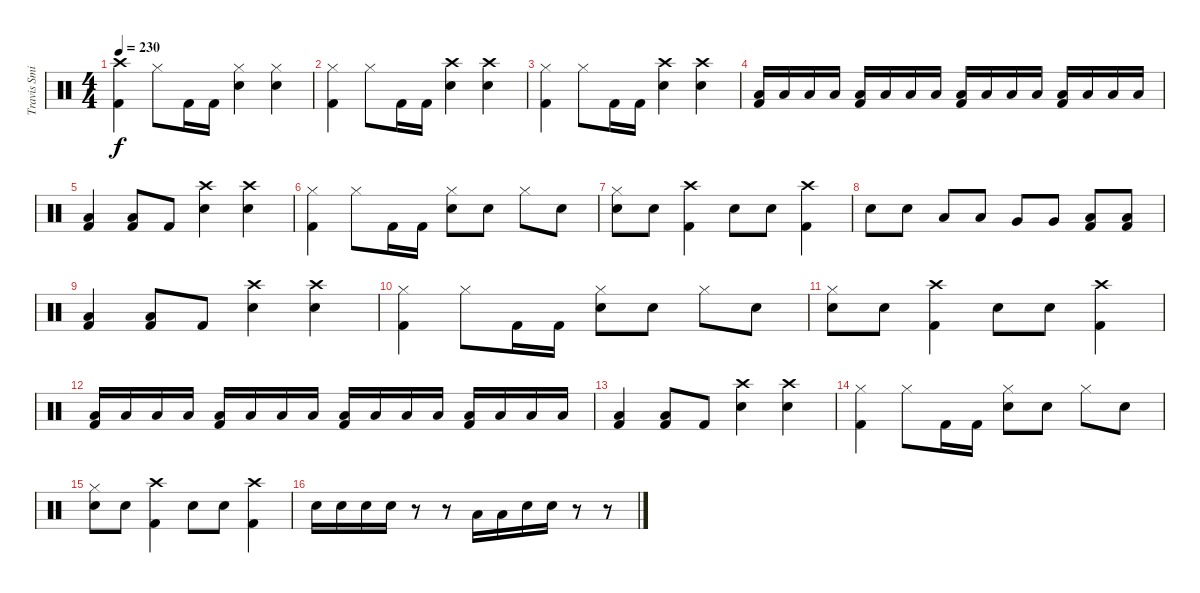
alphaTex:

\track ("Travis Smith (Drums)" "Travis Smi") {instrument percussion}
\staff {score}
\articulation defaults
\ts (4 4)
\tempo 230
\clef neutral
\ks c
("Crash high (hit)" "Kick (hit) 2").4{dy f} "Hi-Hat (closed)".8 "Kick (hit) 2".16 "Kick (hit) 2".16 ("Hi-Hat (closed)" "Electric Snare (hit)").4 ("Hi-Hat (closed)" "Electric Snare (hit)").4 |
("Hi-Hat (closed)" "Kick (hit) 2").4 "Hi-Hat (closed)".8 "Kick (hit) 2".16 "Kick (hit) 2".16 ("Crash high (hit)" "Electric Snare (hit)").4 ("Crash high (hit)" "Electric Snare (hit)").4 |
("Hi-Hat (closed)" "Kick (hit) 2").4 "Hi-Hat (closed)".8 "Kick (hit) 2".16 "Kick (hit) 2".16 ("Crash high (hit)" "Electric Snare (hit)").4 ("Crash high (hit)" "Electric Snare (hit)").4 |
("Low Floor Tom (hit)" "Kick (hit) 2").16 "Low Floor Tom (hit)".16 "Low Floor Tom (hit)".16 "Low Floor Tom (hit)".16 ("Low Floor Tom (hit)" "Kick (hit) 2").16 "Low Floor Tom (hit)".16 "Low Floor Tom (hit)".16 "Low Floor Tom (hit)".16 ("Low Floor Tom (hit)" "Kick (hit) 2").16 "Low Floor Tom (hit)".16 "Low Floor Tom (hit)".16 "Low Floor Tom (hit)".16 ("Low Floor Tom (hit)" "Kick (hit) 2").16 "Low Floor Tom (hit)".16 "Low Floor Tom (hit)".16 "Low Floor Tom (hit)".16 |
("Low Floor Tom (hit)" "Kick (hit) 2").4 ("Low Floor Tom (hit)" "Kick (hit) 2").8 "Kick (hit) 2".8 ("Crash high (hit)" "Electric Snare (hit)").4 ("Crash high (hit)" "Electric Snare (hit)").4 |
("Hi-Hat (closed)" "Kick (hit) 2").4 "Hi-Hat (closed)".8 "Kick (hit) 2".16 "Kick (hit) 2".16 ("Hi-Hat (closed)" "Electric Snare (hit)").8 "Electric Snare (hit)".8 "Hi-Hat (closed)".8 "Electric Snare (hit)".8 |
("Hi-Hat (closed)" "Electric Snare (hit)").8 "Electric Snare (hit)".8 ("Crash high (hit)" "Kick (hit) 2").4 "Electric Snare (hit)".8 "Electric Snare (hit)".8 ("Crash high (hit)" "Kick (hit) 2").4 |
"Electric Snare (hit)".8 "Electric Snare (hit)".8 "Low Floor Tom (hit)".8 "Low Floor Tom (hit)".8 "Very Low Tom (hit)".8 "Very Low Tom (hit)".8 ("Low Floor Tom (hit)" "Kick (hit) 2").8 ("Low Floor Tom (hit)" "Kick (hit) 2").8 |
("Low Floor Tom (hit)" "Kick (hit) 2").4 ("Low Floor Tom (hit)" "Kick (hit) 2").8 "Kick (hit) 2".8 ("Crash high (hit)" "Electric Snare (hit)").4 ("Crash high (hit)" "Electric Snare (hit)").4 |
("Hi-Hat (closed)" "Kick (hit) 2").4 "Hi-Hat (closed)".8 "Kick (hit) 2".16 "Kick (hit) 2".16 ("Hi-Hat (closed)" "Electric Snare (hit)").8 "Electric Snare (hit)".8 "Hi-Hat (closed)".8 "Electric Snare (hit)".8 |
("Hi-Hat (closed)" "Electric Snare (hit)").8 "Electric Snare (hit)".8 ("Crash high (hit)" "Kick (hit) 2").4 "Electric Snare (hit)".8 "Electric Snare (hit)".8 ("Crash high (hit)" "Kick (hit) 2").4 |
("Low Floor Tom (hit)" "Kick (hit) 2").16 "Low Floor Tom (hit)".16 "Low Floor Tom (hit)".16 "Low Floor Tom (hit)".16 ("Low Floor Tom (hit)" "Kick (hit) 2").16 "Low Floor Tom (hit)".16 "Low Floor Tom (hit)".16 "Low Floor Tom (hit)".16 ("Low Floor Tom (hit)" "Kick (hit) 2").16 "Low Floor Tom (hit)".16 "Low Floor Tom (hit)".16 "Low Floor Tom (hit)".16 ("Low Floor Tom (hit)" "Kick (hit) 2").16 "Low Floor Tom (hit)".16 "Low Floor Tom (hit)".16 "Low Floor Tom (hit)".16 |
("Low Floor Tom (hit)" "Kick (hit) 2").4 ("Low Floor Tom (hit)" "Kick (hit) 2").8 "Kick (hit) 2".8 ("Crash high (hit)" "Electric Snare (hit)").4 ("Crash high (hit)" "Electric Snare (hit)").4 |
("Hi-Hat (closed)" "Kick (hit) 2").4 "Hi-Hat (closed)".8 "Kick (hit) 2".16 "Kick (hit) 2".16 ("Hi-Hat (closed)" "Electric Snare (hit)").8 "Electric Snare (hit)".8 "Hi-Hat (closed)".8 "Electric Snare (hit)".8 |
("Hi-Hat (closed)" "Electric Snare (hit)").8 "Electric Snare (hit)".8 ("Crash high (hit)" "Kick (hit) 2").4 "Electric Snare (hit)".8 "Electric Snare (hit)".8 ("Crash high (hit)" "Kick (hit) 2").4 |
"Electric Snare (hit)".16 "Electric Snare (hit)".16 "Electric Snare (hit)".16 "Electric Snare (hit)".16 r.8 r.8 "Low Floor Tom (hit)".16 "Low Floor Tom (hit)".16 "Electric Snare (hit)".16 "Electric Snare (hit)".16 r.8 r.8
